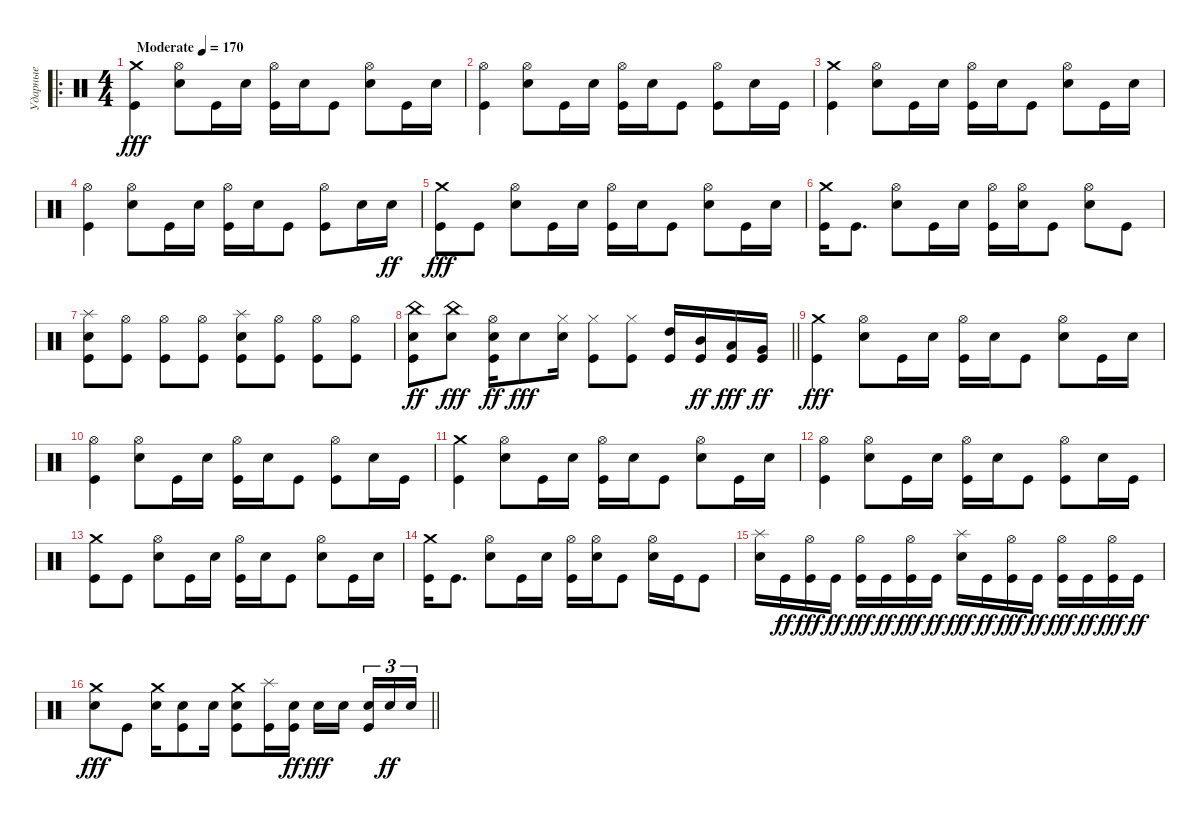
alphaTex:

\track ("Ударные" "Ударные") {instrument percussion}
\staff {score}
\articulation defaults
\ro
\ts (4 4)
\tempo (170 "Moderate")
\clef neutral
\ks c
("Crash medium (hit)" "Kick (hit)").4{dy fff} ("Hi-Hat (open)" "Electric Snare (hit)").8 "Kick (hit)".16 "Electric Snare (hit)".16 ("Hi-Hat (open)" "Kick (hit)").16 "Electric Snare (hit)".16 "Kick (hit)".8 ("Hi-Hat (open)" "Electric Snare (hit)").8 "Kick (hit)".16 "Electric Snare (hit)".16 |
("Hi-Hat (open)" "Kick (hit)").4 ("Hi-Hat (open)" "Electric Snare (hit)").8 "Kick (hit)".16 "Electric Snare (hit)".16 ("Hi-Hat (open)" "Kick (hit)").16 "Electric Snare (hit)".16 "Kick (hit)".8 ("Hi-Hat (open)" "Kick (hit)").8 "Electric Snare (hit)".16 "Kick (hit)".16 |
("Crash medium (hit)" "Kick (hit)").4 ("Hi-Hat (open)" "Electric Snare (hit)").8 "Kick (hit)".16 "Electric Snare (hit)".16 ("Hi-Hat (open)" "Kick (hit)").16 "Electric Snare (hit)".16 "Kick (hit)".8 ("Hi-Hat (open)" "Electric Snare (hit)").8 "Kick (hit)".16 "Electric Snare (hit)".16 |
("Hi-Hat (open)" "Kick (hit)").4 ("Hi-Hat (open)" "Electric Snare (hit)").8 "Kick (hit)".16 "Electric Snare (hit)".16 ("Hi-Hat (open)" "Kick (hit)").16 "Electric Snare (hit)".16 "Kick (hit)".8 ("Hi-Hat (open)" "Kick (hit)").8 "Electric Snare (hit)".16 "Electric Snare (hit)".16{dy ff} |
("Crash medium (hit)" "Kick (hit)").8{dy fff} "Kick (hit)".8 ("Hi-Hat (open)" "Electric Snare (hit)").8 "Kick (hit)".16 "Electric Snare (hit)".16 ("Hi-Hat (open)" "Kick (hit)").16 "Electric Snare (hit)".16 "Kick (hit)".8 ("Hi-Hat (open)" "Electric Snare (hit)").8 "Kick (hit)".16 "Electric Snare (hit)".16 |
("Crash medium (hit)" "Kick (hit)").16 "Kick (hit)".8{d} ("Hi-Hat (open)" "Electric Snare (hit)").8 "Kick (hit)".16 "Electric Snare (hit)".16 ("Hi-Hat (open)" "Kick (hit)").16 ("Hi-Hat (open)" "Electric Snare (hit)").16 "Kick (hit)".8 ("Hi-Hat (open)" "Electric Snare (hit)").8 "Kick (hit)".8 |
("Splash (hit)" "Electric Snare (hit)" "Kick (hit)").8 ("Hi-Hat (open)" "Kick (hit)").8 ("Hi-Hat (open)" "Kick (hit)").8 ("Hi-Hat (open)" "Kick (hit)").8 ("Splash (hit)" "Electric Snare (hit)" "Kick (hit)").8 ("Hi-Hat (open)" "Kick (hit)").8 ("Hi-Hat (open)" "Kick (hit)").8 ("Hi-Hat (open)" "Kick (hit)").8 |
\barLineRight lightlight
("China (hit)" "Electric Snare (hit)" "Kick (hit)").8{dy ff} ("China (hit)" "Electric Snare (hit)").8{dy fff} ("Hi-Hat (open)" "Electric Snare (hit)" "Kick (hit)").16{dy ff} "Electric Snare (hit)".8{dy fff} ("Hi-Hat (closed)" "Electric Snare (hit)").16 ("Hi-Hat (closed)" "Kick (hit)").8 ("Hi-Hat (closed)" "Kick (hit)").8 ("High Tom (hit)" "Kick (hit)").16 ("Mid Tom (hit)" "Kick (hit)").16{dy ff} ("Low Tom (hit)" "Kick (hit)").16{dy fff} ("Very Low Tom (hit)" "Kick (hit)").16{dy ff} |
("Crash medium (hit)" "Kick (hit)").4{dy fff} ("Hi-Hat (open)" "Electric Snare (hit)").8 "Kick (hit)".16 "Electric Snare (hit)".16 ("Hi-Hat (open)" "Kick (hit)").16 "Electric Snare (hit)".16 "Kick (hit)".8 ("Hi-Hat (open)" "Electric Snare (hit)").8 "Kick (hit)".16 "Electric Snare (hit)".16 |
("Hi-Hat (open)" "Kick (hit)").4 ("Hi-Hat (open)" "Electric Snare (hit)").8 "Kick (hit)".16 "Electric Snare (hit)".16 ("Hi-Hat (open)" "Kick (hit)").16 "Electric Snare (hit)".16 "Kick (hit)".8 ("Hi-Hat (open)" "Kick (hit)").8 "Electric Snare (hit)".16 "Kick (hit)".16 |
("Crash medium (hit)" "Kick (hit)").4 ("Hi-Hat (open)" "Electric Snare (hit)").8 "Kick (hit)".16 "Electric Snare (hit)".16 ("Hi-Hat (open)" "Kick (hit)").16 "Electric Snare (hit)".16 "Kick (hit)".8 ("Hi-Hat (open)" "Electric Snare (hit)").8 "Kick (hit)".16 "Electric Snare (hit)".16 |
("Hi-Hat (open)" "Kick (hit)").4 ("Hi-Hat (open)" "Electric Snare (hit)").8 "Kick (hit)".16 "Electric Snare (hit)".16 ("Hi-Hat (open)" "Kick (hit)").16 "Electric Snare (hit)".16 "Kick (hit)".8 ("Hi-Hat (open)" "Kick (hit)").8 "Electric Snare (hit)".16 "Kick (hit)".16 |
("Crash medium (hit)" "Kick (hit)").8 "Kick (hit)".8 ("Hi-Hat (open)" "Electric Snare (hit)").8 "Kick (hit)".16 "Electric Snare (hit)".16 ("Hi-Hat (open)" "Kick (hit)").16 "Electric Snare (hit)".16 "Kick (hit)".8 ("Hi-Hat (open)" "Electric Snare (hit)").8 "Kick (hit)".16 "Electric Snare (hit)".16 |
("Crash medium (hit)" "Kick (hit)").16 "Kick (hit)".8{d} ("Hi-Hat (open)" "Electric Snare (hit)").8 "Kick (hit)".16 "Electric Snare (hit)".16 ("Hi-Hat (open)" "Kick (hit)").16 ("Hi-Hat (open)" "Electric Snare (hit)").16 "Kick (hit)".8 ("Hi-Hat (open)" "Electric Snare (hit)").16 "Kick (hit)".16 "Kick (hit)".8 |
("Splash (hit)" "Electric Snare (hit)").16 "Kick (hit)".16{dy ff} ("Hi-Hat (open)" "Kick (hit)").16{dy fff} "Kick (hit)".16{dy ff} ("Hi-Hat (open)" "Kick (hit)").16{dy fff} "Kick (hit)".16{dy ff} ("Hi-Hat (open)" "Kick (hit)").16{dy fff} "Kick (hit)".16{dy ff} ("Splash (hit)" "Electric Snare (hit)").16{dy fff} "Kick (hit)".16{dy ff} ("Hi-Hat (open)" "Kick (hit)").16{dy fff} "Kick (hit)".16{dy ff} ("Hi-Hat (open)" "Kick (hit)").16{dy fff} "Kick (hit)".16{dy ff} ("Hi-Hat (open)" "Kick (hit)").16{dy fff} "Kick (hit)".16{dy ff} |
\barLineRight lightlight
("Crash medium (hit)" "Electric Snare (hit)").8{dy fff} "Kick (hit)".8 ("Crash medium (hit)" "Electric Snare (hit)").16 ("Electric Snare (hit)" "Kick (hit)").8 "Electric Snare (hit)".16 ("Crash medium (hit)" "Electric Snare (hit)" "Kick (hit)").8 ("Splash (hit)" "Kick (hit)").16 ("Electric Snare (hit)" "Kick (hit)").16{dy ff} "Electric Snare (hit)".16{dy fff} "Electric Snare (hit)".16{beam splitsecondary} ("Electric Snare (hit)" "Kick (hit)").16{tu (3 2)} "Electric Snare (hit)".16{tu (3 2) dy ff} "Electric Snare (hit)".16{tu (3 2)}
